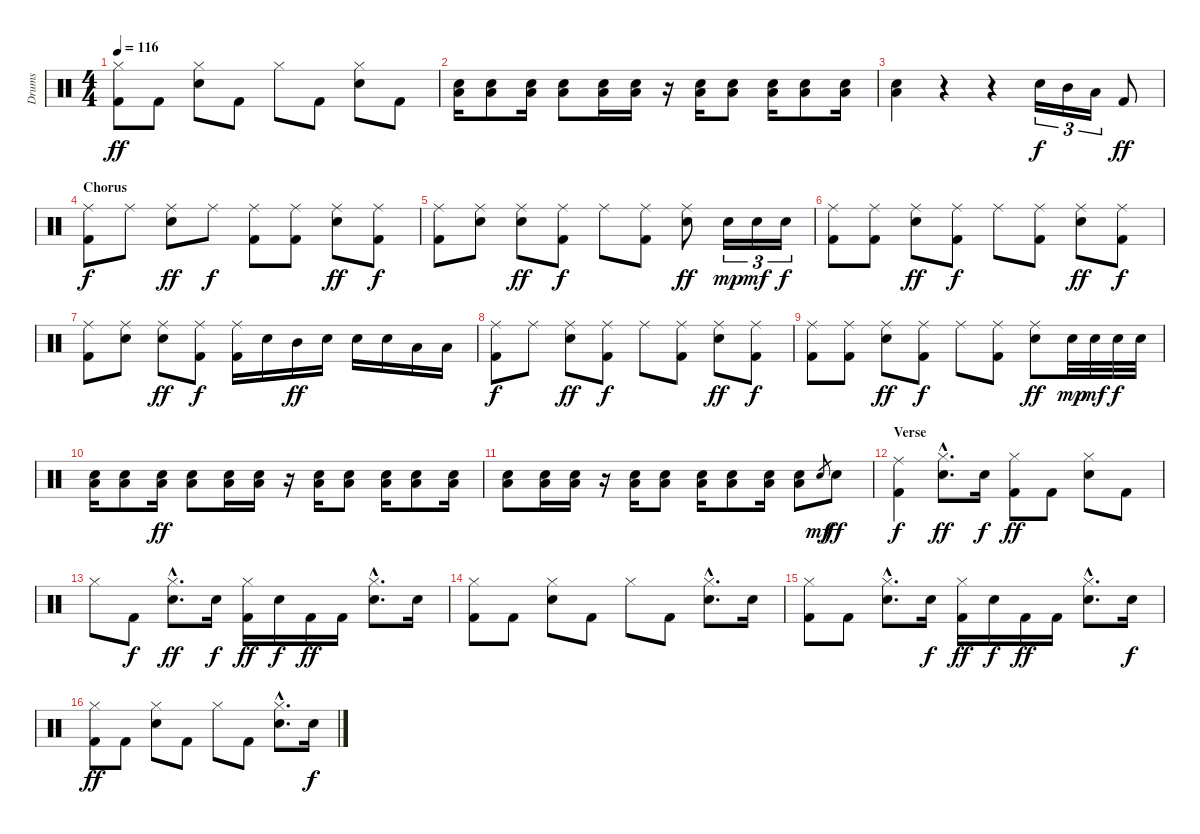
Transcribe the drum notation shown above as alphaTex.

\track ("Drums" "Drums") {instrument percussion}
\staff {score}
\articulation defaults
\ts (4 4)
\tempo 116
\clef neutral
\ks c
("Hi-Hat (closed)" "Kick (hit) 2").8{dy ff} "Kick (hit) 2".8 ("Hi-Hat (closed)" "Electric Snare (hit)").8 "Kick (hit) 2".8 "Hi-Hat (closed)".8 "Kick (hit) 2".8 ("Hi-Hat (closed)" "Electric Snare (hit)").8 "Kick (hit) 2".8 |
("Low Tom (hit)" "Electric Snare (hit)").16 ("Low Tom (hit)" "Electric Snare (hit)").8 ("Low Tom (hit)" "Electric Snare (hit)").16 ("Low Tom (hit)" "Electric Snare (hit)").8 ("Low Tom (hit)" "Electric Snare (hit)").16 ("Low Tom (hit)" "Electric Snare (hit)").16 r.16 ("Low Tom (hit)" "Electric Snare (hit)").16 ("Low Tom (hit)" "Electric Snare (hit)").8 ("Low Tom (hit)" "Electric Snare (hit)").16 ("Low Tom (hit)" "Electric Snare (hit)").8 ("Low Tom (hit)" "Electric Snare (hit)").16 |
("Low Tom (hit)" "Electric Snare (hit)").4 r.4 r.4 "Electric Snare (hit)".16{tu (3 2) dy f} "Mid Tom (hit)".16{tu (3 2)} "Low Tom (hit)".16{tu (3 2)} "Kick (hit) 2".8{dy ff} |
\section ("" "Chorus")
("Ride (middle)" "Kick (hit) 2").8{dy f} "Ride (middle)".8 ("Ride (middle)" "Electric Snare (hit)").8{dy ff} "Ride (middle)".8{dy f} ("Ride (middle)" "Kick (hit) 2").8 ("Ride (middle)" "Kick (hit) 2").8 ("Ride (middle)" "Electric Snare (hit)").8{dy ff} ("Ride (middle)" "Kick (hit) 2").8{dy f} |
("Ride (middle)" "Kick (hit) 2").8 ("Ride (middle)" "Electric Snare (hit)").8 ("Ride (middle)" "Electric Snare (hit)").8{dy ff} ("Ride (middle)" "Kick (hit) 2").8{dy f} "Ride (middle)".8 ("Ride (middle)" "Kick (hit) 2").8 ("Ride (middle)" "Electric Snare (hit)").8{dy ff} "Electric Snare (hit)".16{tu (3 2) dy mp} "Electric Snare (hit)".16{tu (3 2) dy mf} "Electric Snare (hit)".16{tu (3 2) dy f} |
("Ride (middle)" "Kick (hit) 2").8 ("Ride (middle)" "Kick (hit) 2").8 ("Ride (middle)" "Electric Snare (hit)").8{dy ff} ("Ride (middle)" "Kick (hit) 2").8{dy f} "Ride (middle)".8 ("Ride (middle)" "Kick (hit) 2").8 ("Ride (middle)" "Electric Snare (hit)").8{dy ff} ("Ride (middle)" "Kick (hit) 2").8{dy f} |
("Ride (middle)" "Kick (hit) 2").8 ("Ride (middle)" "Electric Snare (hit)").8 ("Ride (middle)" "Electric Snare (hit)").8{dy ff} ("Ride (middle)" "Kick (hit) 2").8{dy f} ("Ride (middle)" "Kick (hit) 2").16 "Electric Snare (hit)".16 "Mid Tom (hit)".16{dy ff} "Electric Snare (hit)".16 "Electric Snare (hit)".16 "Electric Snare (hit)".16 "Low Tom (hit)".16 "Low Tom (hit)".16 |
("Ride (middle)" "Kick (hit) 2").8{dy f} "Ride (middle)".8 ("Ride (middle)" "Electric Snare (hit)").8{dy ff} ("Ride (middle)" "Kick (hit) 2").8{dy f} "Ride (middle)".8 ("Ride (middle)" "Kick (hit) 2").8 ("Ride (middle)" "Electric Snare (hit)").8{dy ff} ("Ride (middle)" "Kick (hit) 2").8{dy f} |
("Ride (middle)" "Kick (hit) 2").8 ("Ride (middle)" "Kick (hit) 2").8 ("Ride (middle)" "Electric Snare (hit)").8{dy ff} ("Ride (middle)" "Kick (hit) 2").8{dy f} "Ride (middle)".8 ("Ride (middle)" "Kick (hit) 2").8 ("Ride (middle)" "Electric Snare (hit)").8{dy ff} "Electric Snare (hit)".32{dy mp} "Electric Snare (hit)".32{dy mf} "Electric Snare (hit)".32{dy f} "Electric Snare (hit)".32 |
("Low Tom (hit)" "Electric Snare (hit)").16 ("Low Tom (hit)" "Electric Snare (hit)").8 ("Low Tom (hit)" "Electric Snare (hit)").16{dy ff} ("Low Tom (hit)" "Electric Snare (hit)").8 ("Low Tom (hit)" "Electric Snare (hit)").16 ("Low Tom (hit)" "Electric Snare (hit)").16 r.16 ("Low Tom (hit)" "Electric Snare (hit)").16 ("Low Tom (hit)" "Electric Snare (hit)").8 ("Low Tom (hit)" "Electric Snare (hit)").16 ("Low Tom (hit)" "Electric Snare (hit)").8 ("Low Tom (hit)" "Electric Snare (hit)").16 |
("Low Tom (hit)" "Electric Snare (hit)").8 ("Low Tom (hit)" "Electric Snare (hit)").16 ("Low Tom (hit)" "Electric Snare (hit)").16 r.16 ("Low Tom (hit)" "Electric Snare (hit)").16 ("Low Tom (hit)" "Electric Snare (hit)").8 ("Low Tom (hit)" "Electric Snare (hit)").16 ("Low Tom (hit)" "Electric Snare (hit)").8 ("Low Tom (hit)" "Electric Snare (hit)").16 ("Low Tom (hit)" "Electric Snare (hit)").8 "Electric Snare (hit)"{h}.8{gr dy mf} "Electric Snare (hit)".8{dy ff} |
\section ("" "Verse")
("Ride (middle)" "Kick (hit) 2").4{dy f} ("Hi-Hat (closed)" "Electric Snare (hit)"{hac}).8{d dy ff} "Electric Snare (hit)".16{dy f} ("Hi-Hat (closed)" "Kick (hit) 2").8{dy ff} "Kick (hit) 2".8 ("Hi-Hat (closed)" "Electric Snare (hit)").8 "Kick (hit) 2".8 |
"Hi-Hat (closed)".8 "Kick (hit) 2".8{dy f} ("Hi-Hat (closed)" "Electric Snare (hit)"{hac}).8{d dy ff} "Electric Snare (hit)".16{dy f} ("Hi-Hat (closed)" "Kick (hit) 2").16{dy ff} "Electric Snare (hit)".16{dy f} "Kick (hit) 2".16{dy ff} "Kick (hit) 2".16 ("Hi-Hat (closed)" "Electric Snare (hit)"{hac}).8{d} "Electric Snare (hit)".16 |
("Hi-Hat (closed)" "Kick (hit) 2").8 "Kick (hit) 2".8 ("Hi-Hat (closed)" "Electric Snare (hit)").8 "Kick (hit) 2".8 "Hi-Hat (closed)".8 "Kick (hit) 2".8 ("Hi-Hat (closed)" "Electric Snare (hit)"{hac}).8{d} "Electric Snare (hit)".16 |
("Hi-Hat (closed)" "Kick (hit) 2").8 "Kick (hit) 2".8 ("Hi-Hat (closed)" "Electric Snare (hit)"{hac}).8{d} "Electric Snare (hit)".16{dy f} ("Hi-Hat (closed)" "Kick (hit) 2").16{dy ff} "Electric Snare (hit)".16{dy f} "Kick (hit) 2".16{dy ff} "Kick (hit) 2".16 ("Hi-Hat (closed)" "Electric Snare (hit)"{hac}).8{d} "Electric Snare (hit)".16{dy f} |
("Hi-Hat (closed)" "Kick (hit) 2").8{dy ff} "Kick (hit) 2".8 ("Hi-Hat (closed)" "Electric Snare (hit)").8 "Kick (hit) 2".8 "Hi-Hat (closed)".8 "Kick (hit) 2".8 ("Hi-Hat (closed)" "Electric Snare (hit)"{hac}).8{d} "Electric Snare (hit)".16{dy f}
